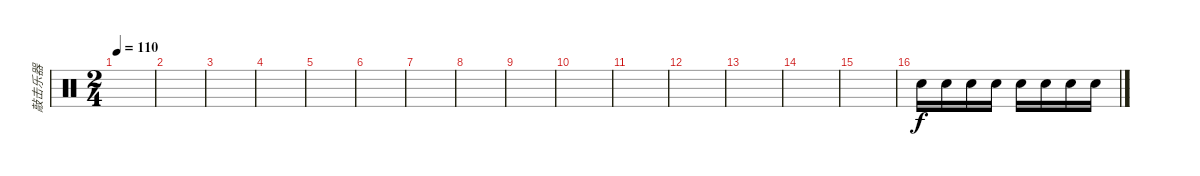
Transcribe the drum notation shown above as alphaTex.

\track ("敲击乐器" "敲击乐器") {instrument percussion}
\staff {score}
\articulation defaults
\ts (2 4)
\tempo 110
\clef neutral
\ks c
|
|
|
|
|
|
|
|
|
|
|
|
|
|
|
"Snare (hit) 2".16 "Snare (hit) 2".16 "Snare (hit) 2".16 "Snare (hit) 2".16 "Snare (hit) 2".16 "Snare (hit) 2".16 "Snare (hit) 2".16 "Snare (hit) 2".16
